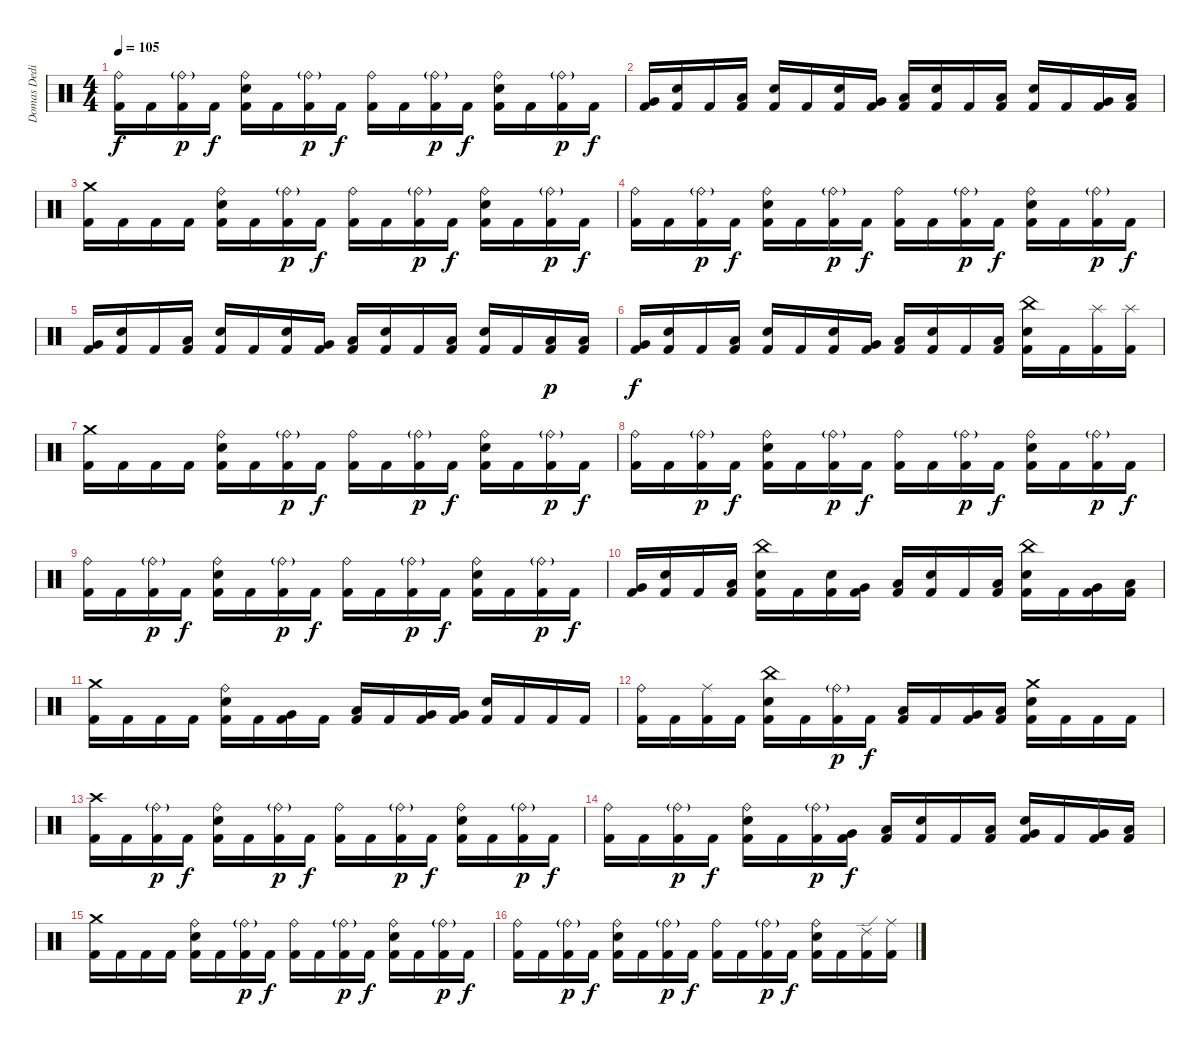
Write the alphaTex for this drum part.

\track ("Domas Dedinas" "Domas Dedi") {instrument percussion}
\staff {score}
\articulation defaults
\ts (4 4)
\tempo 105
\clef neutral
\ks c
("Ride (bell)" "Kick (hit) 2").16{dy f} "Kick (hit) 2".16 ("Ride (bell)"{g} "Kick (hit) 2").16{dy p} "Kick (hit) 2".16{dy f} ("Ride (bell)" "Snare (hit) 2" "Kick (hit) 2").16 "Kick (hit) 2".16 ("Ride (bell)"{g} "Kick (hit) 2").16{dy p} "Kick (hit) 2".16{dy f} ("Ride (bell)" "Kick (hit) 2").16 "Kick (hit) 2".16 ("Ride (bell)"{g} "Kick (hit) 2").16{dy p} "Kick (hit) 2".16{dy f} ("Ride (bell)" "Snare (hit) 2" "Kick (hit) 2").16 "Kick (hit) 2".16 ("Ride (bell)"{g} "Kick (hit) 2").16{dy p} "Kick (hit) 2".16{dy f} |
("Very Low Tom (hit)" "Kick (hit) 2").16 ("Snare (hit) 2" "Kick (hit) 2").16 "Kick (hit) 2".16 ("Low Floor Tom (hit)" "Kick (hit) 2").16 ("Snare (hit) 2" "Kick (hit) 2").16 "Kick (hit) 2".16 ("Snare (hit) 2" "Kick (hit) 2").16 ("Very Low Tom (hit)" "Kick (hit) 2").16 ("Low Floor Tom (hit)" "Kick (hit) 2").16 ("Snare (hit) 2" "Kick (hit) 2").16 "Kick (hit) 2".16 ("Low Floor Tom (hit)" "Kick (hit) 2").16 ("Snare (hit) 2" "Kick (hit) 2").16 "Kick (hit) 2".16 ("Very Low Tom (hit)" "Kick (hit) 2").16 ("Low Floor Tom (hit)" "Kick (hit) 2").16 |
("Crash medium (hit)" "Kick (hit) 2").16 "Kick (hit) 2".16 "Kick (hit) 2".16 "Kick (hit) 2".16 ("Ride (bell)" "Snare (hit) 2" "Kick (hit) 2").16 "Kick (hit) 2".16 ("Ride (bell)"{g} "Kick (hit) 2").16{dy p} "Kick (hit) 2".16{dy f} ("Ride (bell)" "Kick (hit) 2").16 "Kick (hit) 2".16 ("Ride (bell)"{g} "Kick (hit) 2").16{dy p} "Kick (hit) 2".16{dy f} ("Ride (bell)" "Snare (hit) 2" "Kick (hit) 2").16 "Kick (hit) 2".16 ("Ride (bell)"{g} "Kick (hit) 2").16{dy p} "Kick (hit) 2".16{dy f} |
("Ride (bell)" "Kick (hit) 2").16 "Kick (hit) 2".16 ("Ride (bell)"{g} "Kick (hit) 2").16{dy p} "Kick (hit) 2".16{dy f} ("Ride (bell)" "Snare (hit) 2" "Kick (hit) 2").16 "Kick (hit) 2".16 ("Ride (bell)"{g} "Kick (hit) 2").16{dy p} "Kick (hit) 2".16{dy f} ("Ride (bell)" "Kick (hit) 2").16 "Kick (hit) 2".16 ("Ride (bell)"{g} "Kick (hit) 2").16{dy p} "Kick (hit) 2".16{dy f} ("Ride (bell)" "Snare (hit) 2" "Kick (hit) 2").16 "Kick (hit) 2".16 ("Ride (bell)"{g} "Kick (hit) 2").16{dy p} "Kick (hit) 2".16{dy f} |
("Very Low Tom (hit)" "Kick (hit) 2").16 ("Snare (hit) 2" "Kick (hit) 2").16 "Kick (hit) 2".16 ("Low Floor Tom (hit)" "Kick (hit) 2").16 ("Snare (hit) 2" "Kick (hit) 2").16 "Kick (hit) 2".16 ("Snare (hit) 2" "Kick (hit) 2").16 ("Very Low Tom (hit)" "Kick (hit) 2").16 ("Low Floor Tom (hit)" "Kick (hit) 2").16 ("Snare (hit) 2" "Kick (hit) 2").16 "Kick (hit) 2".16 ("Low Floor Tom (hit)" "Kick (hit) 2").16 ("Snare (hit) 2" "Kick (hit) 2").16 "Kick (hit) 2".16 ("Low Floor Tom (hit)" "Kick (hit) 2").16{dy p} ("Low Floor Tom (hit)" "Kick (hit) 2").16 |
("Very Low Tom (hit)" "Kick (hit) 2").16{dy f} ("Snare (hit) 2" "Kick (hit) 2").16 "Kick (hit) 2".16 ("Low Floor Tom (hit)" "Kick (hit) 2").16 ("Snare (hit) 2" "Kick (hit) 2").16 "Kick (hit) 2".16 ("Snare (hit) 2" "Kick (hit) 2").16 ("Very Low Tom (hit)" "Kick (hit) 2").16 ("Low Floor Tom (hit)" "Kick (hit) 2").16 ("Snare (hit) 2" "Kick (hit) 2").16 "Kick (hit) 2".16 ("Low Floor Tom (hit)" "Kick (hit) 2").16 ("China (hit)" "Snare (hit) 2" "Kick (hit) 2").16 "Kick (hit) 2".16 ("Splash (hit)" "Kick (hit) 2").16 ("Splash (hit)" "Kick (hit) 2").16 |
("Crash medium (hit)" "Kick (hit) 2").16 "Kick (hit) 2".16 "Kick (hit) 2".16 "Kick (hit) 2".16 ("Ride (bell)" "Snare (hit) 2" "Kick (hit) 2").16 "Kick (hit) 2".16 ("Ride (bell)"{g} "Kick (hit) 2").16{dy p} "Kick (hit) 2".16{dy f} ("Ride (bell)" "Kick (hit) 2").16 "Kick (hit) 2".16 ("Ride (bell)"{g} "Kick (hit) 2").16{dy p} "Kick (hit) 2".16{dy f} ("Ride (bell)" "Snare (hit) 2" "Kick (hit) 2").16 "Kick (hit) 2".16 ("Ride (bell)"{g} "Kick (hit) 2").16{dy p} "Kick (hit) 2".16{dy f} |
("Ride (bell)" "Kick (hit) 2").16 "Kick (hit) 2".16 ("Ride (bell)"{g} "Kick (hit) 2").16{dy p} "Kick (hit) 2".16{dy f} ("Ride (bell)" "Snare (hit) 2" "Kick (hit) 2").16 "Kick (hit) 2".16 ("Ride (bell)"{g} "Kick (hit) 2").16{dy p} "Kick (hit) 2".16{dy f} ("Ride (bell)" "Kick (hit) 2").16 "Kick (hit) 2".16 ("Ride (bell)"{g} "Kick (hit) 2").16{dy p} "Kick (hit) 2".16{dy f} ("Ride (bell)" "Snare (hit) 2" "Kick (hit) 2").16 "Kick (hit) 2".16 ("Ride (bell)"{g} "Kick (hit) 2").16{dy p} "Kick (hit) 2".16{dy f} |
("Ride (bell)" "Kick (hit) 2").16 "Kick (hit) 2".16 ("Ride (bell)"{g} "Kick (hit) 2").16{dy p} "Kick (hit) 2".16{dy f} ("Ride (bell)" "Snare (hit) 2" "Kick (hit) 2").16 "Kick (hit) 2".16 ("Ride (bell)"{g} "Kick (hit) 2").16{dy p} "Kick (hit) 2".16{dy f} ("Ride (bell)" "Kick (hit) 2").16 "Kick (hit) 2".16 ("Ride (bell)"{g} "Kick (hit) 2").16{dy p} "Kick (hit) 2".16{dy f} ("Ride (bell)" "Snare (hit) 2" "Kick (hit) 2").16 "Kick (hit) 2".16 ("Ride (bell)"{g} "Kick (hit) 2").16{dy p} "Kick (hit) 2".16{dy f} |
("Very Low Tom (hit)" "Kick (hit) 2").16 ("Snare (hit) 2" "Kick (hit) 2").16 "Kick (hit) 2".16 ("Low Floor Tom (hit)" "Kick (hit) 2").16 ("China (hit)" "Snare (hit) 2" "Kick (hit) 2").16 "Kick (hit) 2".16 ("Snare (hit) 2" "Kick (hit) 2").16 ("Very Low Tom (hit)" "Kick (hit) 2").16 ("Low Floor Tom (hit)" "Kick (hit) 2").16 ("Snare (hit) 2" "Kick (hit) 2").16 "Kick (hit) 2".16 ("Low Floor Tom (hit)" "Kick (hit) 2").16 ("China (hit)" "Snare (hit) 2" "Kick (hit) 2").16 "Kick (hit) 2".16 ("Very Low Tom (hit)" "Kick (hit) 2").16 ("Low Floor Tom (hit)" "Kick (hit) 2").16 |
("Crash medium (hit)" "Kick (hit) 2").16 "Kick (hit) 2".16 "Kick (hit) 2".16 "Kick (hit) 2".16 ("Ride (bell)" "Snare (hit) 2" "Kick (hit) 2").16 "Kick (hit) 2".16 ("Very Low Tom (hit)" "Kick (hit) 2").16 "Kick (hit) 2".16 ("Low Floor Tom (hit)" "Kick (hit) 2").16 "Kick (hit) 2".16 ("Very Low Tom (hit)" "Kick (hit) 2").16 ("Very Low Tom (hit)" "Kick (hit) 2").16 ("Snare (hit) 2" "Kick (hit) 2").16 "Kick (hit) 2".16 "Kick (hit) 2".16 "Kick (hit) 2".16 |
("Ride (bell)" "Kick (hit) 2").16 "Kick (hit) 2".16 ("Ride (middle)" "Kick (hit) 2").16 "Kick (hit) 2".16 ("China (hit)" "Snare (hit) 2" "Kick (hit) 2").16 "Kick (hit) 2".16 ("Ride (bell)"{g} "Kick (hit) 2").16{dy p} "Kick (hit) 2".16{dy f} ("Low Tom (hit)" "Kick (hit) 2").16 "Kick (hit) 2".16 ("Very Low Tom (hit)" "Kick (hit) 2").16 ("Low Floor Tom (hit)" "Kick (hit) 2").16 ("Crash medium (hit)" "Snare (hit) 2" "Kick (hit) 2").16 "Kick (hit) 2".16 "Kick (hit) 2".16 "Kick (hit) 2".16 |
("Crash high (hit)" "Kick (hit) 2").16 "Kick (hit) 2".16 ("Ride (bell)"{g} "Kick (hit) 2").16{dy p} "Kick (hit) 2".16{dy f} ("Ride (bell)" "Snare (hit) 2" "Kick (hit) 2").16 "Kick (hit) 2".16 ("Ride (bell)"{g} "Kick (hit) 2").16{dy p} "Kick (hit) 2".16{dy f} ("Ride (bell)" "Kick (hit) 2").16 "Kick (hit) 2".16 ("Ride (bell)"{g} "Kick (hit) 2").16{dy p} "Kick (hit) 2".16{dy f} ("Ride (bell)" "Snare (hit) 2" "Kick (hit) 2").16 "Kick (hit) 2".16 ("Ride (bell)"{g} "Kick (hit) 2").16{dy p} "Kick (hit) 2".16{dy f} |
("Ride (bell)" "Kick (hit) 2").16 "Kick (hit) 2".16 ("Ride (bell)"{g} "Kick (hit) 2").16{dy p} "Kick (hit) 2".16{dy f} ("Ride (bell)" "Snare (hit) 2" "Kick (hit) 2").16 "Kick (hit) 2".16 ("Ride (bell)"{g} "Kick (hit) 2").16{dy p} ("Very Low Tom (hit)" "Kick (hit) 2").16{dy f} ("Low Floor Tom (hit)" "Kick (hit) 2").16 ("Snare (hit) 2" "Kick (hit) 2").16 "Kick (hit) 2".16 ("Low Floor Tom (hit)" "Kick (hit) 2").16 ("Very Low Tom (hit)" "Snare (hit) 2" "Kick (hit) 2").16 "Kick (hit) 2".16 ("Very Low Tom (hit)" "Kick (hit) 2").16 ("Low Floor Tom (hit)" "Kick (hit) 2").16 |
("Crash medium (hit)" "Kick (hit) 2").16 "Kick (hit) 2".16 "Kick (hit) 2".16 "Kick (hit) 2".16 ("Ride (bell)" "Snare (hit) 2" "Kick (hit) 2").16 "Kick (hit) 2".16 ("Ride (bell)"{g} "Kick (hit) 2").16{dy p} "Kick (hit) 2".16{dy f} ("Ride (bell)" "Kick (hit) 2").16 "Kick (hit) 2".16 ("Ride (bell)"{g} "Kick (hit) 2").16{dy p} "Kick (hit) 2".16{dy f} ("Ride (bell)" "Snare (hit) 2" "Kick (hit) 2").16 "Kick (hit) 2".16 ("Ride (bell)"{g} "Kick (hit) 2").16{dy p} "Kick (hit) 2".16{dy f} |
("Ride (bell)" "Kick (hit) 2").16 "Kick (hit) 2".16 ("Ride (bell)"{g} "Kick (hit) 2").16{dy p} "Kick (hit) 2".16{dy f} ("Ride (bell)" "Snare (hit) 2" "Kick (hit) 2").16 "Kick (hit) 2".16 ("Ride (bell)"{g} "Kick (hit) 2").16{dy p} "Kick (hit) 2".16{dy f} ("Ride (bell)" "Kick (hit) 2").16 "Kick (hit) 2".16 ("Ride (bell)"{g} "Kick (hit) 2").16{dy p} "Kick (hit) 2".16{dy f} ("Ride (bell)" "Snare (hit) 2" "Kick (hit) 2").16 "Kick (hit) 2".16 ("Ride (edge) 2" "Kick (hit) 2").16 ("Ride (middle)" "Kick (hit) 2").16
